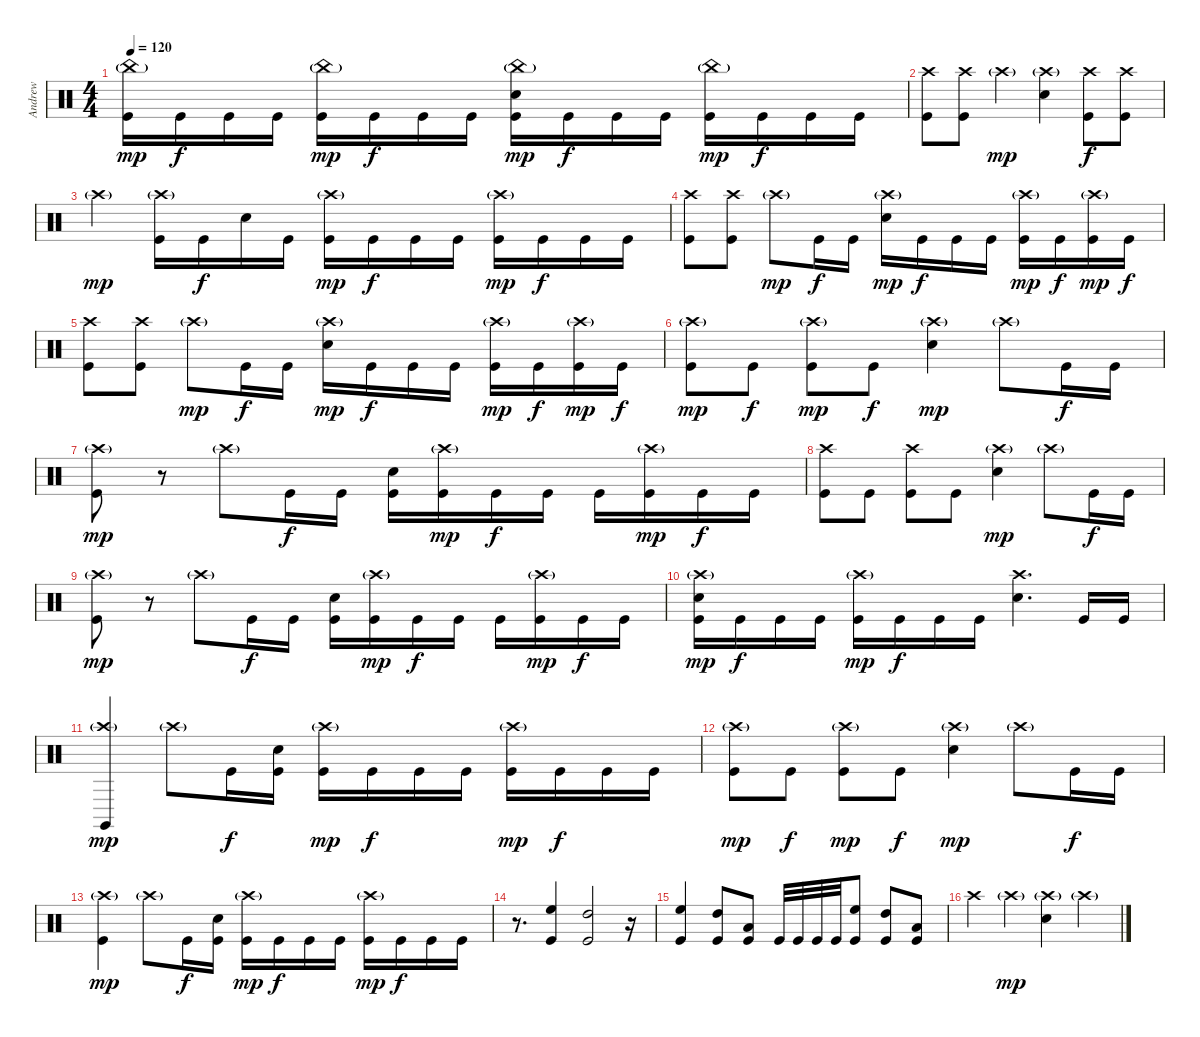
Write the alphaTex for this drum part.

\track ("Andrew" "Andrew") {instrument percussion}
\staff {score}
\articulation defaults
\ts (4 4)
\tempo 120
\clef neutral
\ks c
("China (hit)"{g} "Kick (hit)").16{dy mp} "Kick (hit)".16{dy f} "Kick (hit)".16 "Kick (hit)".16 ("China (hit)"{g} "Kick (hit)").16{dy mp} "Kick (hit)".16{dy f} "Kick (hit)".16 "Kick (hit)".16 ("China (hit)"{g} "Snare (hit) 2" "Kick (hit)").16{dy mp} "Kick (hit)".16{dy f} "Kick (hit)".16 "Kick (hit)".16 ("China (hit)"{g} "Kick (hit)").16{dy mp} "Kick (hit)".16{dy f} "Kick (hit)".16 "Kick (hit)".16 |
("Crash high (hit)" "Kick (hit)").8 ("Crash high (hit)" "Kick (hit)").8 "Crash high (hit)"{g}.4{dy mp} ("Crash high (hit)"{g} "Snare (hit) 2").4 ("Crash high (hit)" "Kick (hit)").8{dy f} ("Crash high (hit)" "Kick (hit)").8 |
"Crash high (hit)"{g}.4{dy mp} ("Crash high (hit)"{g} "Kick (hit)").16 "Kick (hit)".16{dy f} "Snare (hit) 2".16 "Kick (hit)".16 ("Crash high (hit)"{g} "Kick (hit)").16{dy mp} "Kick (hit)".16{dy f} "Kick (hit)".16 "Kick (hit)".16 ("Crash high (hit)"{g} "Kick (hit)").16{dy mp} "Kick (hit)".16{dy f} "Kick (hit)".16 "Kick (hit)".16 |
("Crash high (hit)" "Kick (hit)").8 ("Crash high (hit)" "Kick (hit)").8 "Crash high (hit)"{g}.8{dy mp} "Kick (hit)".16{dy f} "Kick (hit)".16 ("Crash high (hit)"{g} "Snare (hit) 2").16{dy mp} "Kick (hit)".16{dy f} "Kick (hit)".16 "Kick (hit)".16 ("Crash high (hit)"{g} "Kick (hit)").16{dy mp} "Kick (hit)".16{dy f} ("Crash high (hit)"{g} "Kick (hit)").16{dy mp} "Kick (hit)".16{dy f} |
("Crash high (hit)" "Kick (hit)").8 ("Crash high (hit)" "Kick (hit)").8 "Crash high (hit)"{g}.8{dy mp} "Kick (hit)".16{dy f} "Kick (hit)".16 ("Crash high (hit)"{g} "Snare (hit) 2").16{dy mp} "Kick (hit)".16{dy f} "Kick (hit)".16 "Kick (hit)".16 ("Crash high (hit)"{g} "Kick (hit)").16{dy mp} "Kick (hit)".16{dy f} ("Crash high (hit)"{g} "Kick (hit)").16{dy mp} "Kick (hit)".16{dy f} |
("Crash high (hit)"{g} "Kick (hit)").8{dy mp} "Kick (hit)".8{dy f} ("Crash high (hit)"{g} "Kick (hit)").8{dy mp} "Kick (hit)".8{dy f} ("Crash high (hit)"{g} "Snare (hit) 2").4{dy mp} "Crash high (hit)"{g}.8 "Kick (hit)".16{dy f} "Kick (hit)".16 |
("Crash high (hit)"{g} "Kick (hit)").8{dy mp} r.8 "Crash high (hit)"{g}.8 "Kick (hit)".16{dy f} "Kick (hit)".16 ("Snare (hit) 2" "Kick (hit)").16 ("Crash high (hit)"{g} "Kick (hit)").16{dy mp} "Kick (hit)".16{dy f} "Kick (hit)".16 "Kick (hit)".16 ("Crash high (hit)"{g} "Kick (hit)").16{dy mp} "Kick (hit)".16{dy f} "Kick (hit)".16 |
("Crash high (hit)" "Kick (hit)").8 "Kick (hit)".8 ("Crash high (hit)" "Kick (hit)").8 "Kick (hit)".8 ("Crash high (hit)"{g} "Snare (hit) 2").4{dy mp} "Crash high (hit)"{g}.8 "Kick (hit)".16{dy f} "Kick (hit)".16 |
("Crash high (hit)"{g} "Kick (hit)").8{dy mp} r.8 "Crash high (hit)"{g}.8 "Kick (hit)".16{dy f} "Kick (hit)".16 ("Snare (hit) 2" "Kick (hit)").16 ("Crash high (hit)"{g} "Kick (hit)").16{dy mp} "Kick (hit)".16{dy f} "Kick (hit)".16 "Kick (hit)".16 ("Crash high (hit)"{g} "Kick (hit)").16{dy mp} "Kick (hit)".16{dy f} "Kick (hit)".16 |
("Crash high (hit)"{g} "Snare (hit) 2" "Kick (hit)").16{dy mp} "Kick (hit)".16{dy f} "Kick (hit)".16 "Kick (hit)".16 ("Crash high (hit)"{g} "Kick (hit)").16{dy mp} "Kick (hit)".16{dy f} "Kick (hit)".16 "Kick (hit)".16 ("Crash high (hit)" "Snare (hit) 2").4{d} "Kick (hit)".16 "Kick (hit)".16 |
("Crash high (hit)"{g} "Claves (hit)").4{dy mp} "Crash high (hit)"{g}.8 "Kick (hit)".16{dy f} ("Snare (hit) 2" "Kick (hit)").16 ("Crash high (hit)"{g} "Kick (hit)").16{dy mp} "Kick (hit)".16{dy f} "Kick (hit)".16 "Kick (hit)".16 ("Crash high (hit)"{g} "Kick (hit)").16{dy mp} "Kick (hit)".16{dy f} "Kick (hit)".16 "Kick (hit)".16 |
("Crash high (hit)"{g} "Kick (hit)").8{dy mp} "Kick (hit)".8{dy f} ("Crash high (hit)"{g} "Kick (hit)").8{dy mp} "Kick (hit)".8{dy f} ("Crash high (hit)"{g} "Snare (hit) 2").4{dy mp} "Crash high (hit)"{g}.8 "Kick (hit)".16{dy f} "Kick (hit)".16 |
("Crash high (hit)"{g} "Kick (hit)").4{dy mp} "Crash high (hit)"{g}.8 "Kick (hit)".16{dy f} ("Snare (hit) 2" "Kick (hit)").16 ("Crash high (hit)"{g} "Kick (hit)").16{dy mp} "Kick (hit)".16{dy f} "Kick (hit)".16 "Kick (hit)".16 ("Crash high (hit)"{g} "Kick (hit)").16{dy mp} "Kick (hit)".16{dy f} "Kick (hit)".16 "Kick (hit)".16 |
r.8{d} ("High Floor Tom (hit)" "Kick (hit)").4 ("High Tom (hit)" "Kick (hit)").2 r.16 |
("High Floor Tom (hit)" "Kick (hit)").4 ("High Tom (hit)" "Kick (hit)").8 ("Low Tom (hit)" "Kick (hit)").8 "Kick (hit)".32 "Kick (hit)".32 "Kick (hit)".32 "Kick (hit)".32 ("High Floor Tom (hit)" "Kick (hit)").8 ("High Tom (hit)" "Kick (hit)").8 ("Low Tom (hit)" "Kick (hit)").8 |
"Crash high (hit)".4 "Crash high (hit)"{g}.4{dy mp} ("Crash high (hit)"{g} "Snare (hit) 2").4 "Crash high (hit)"{g}.4
